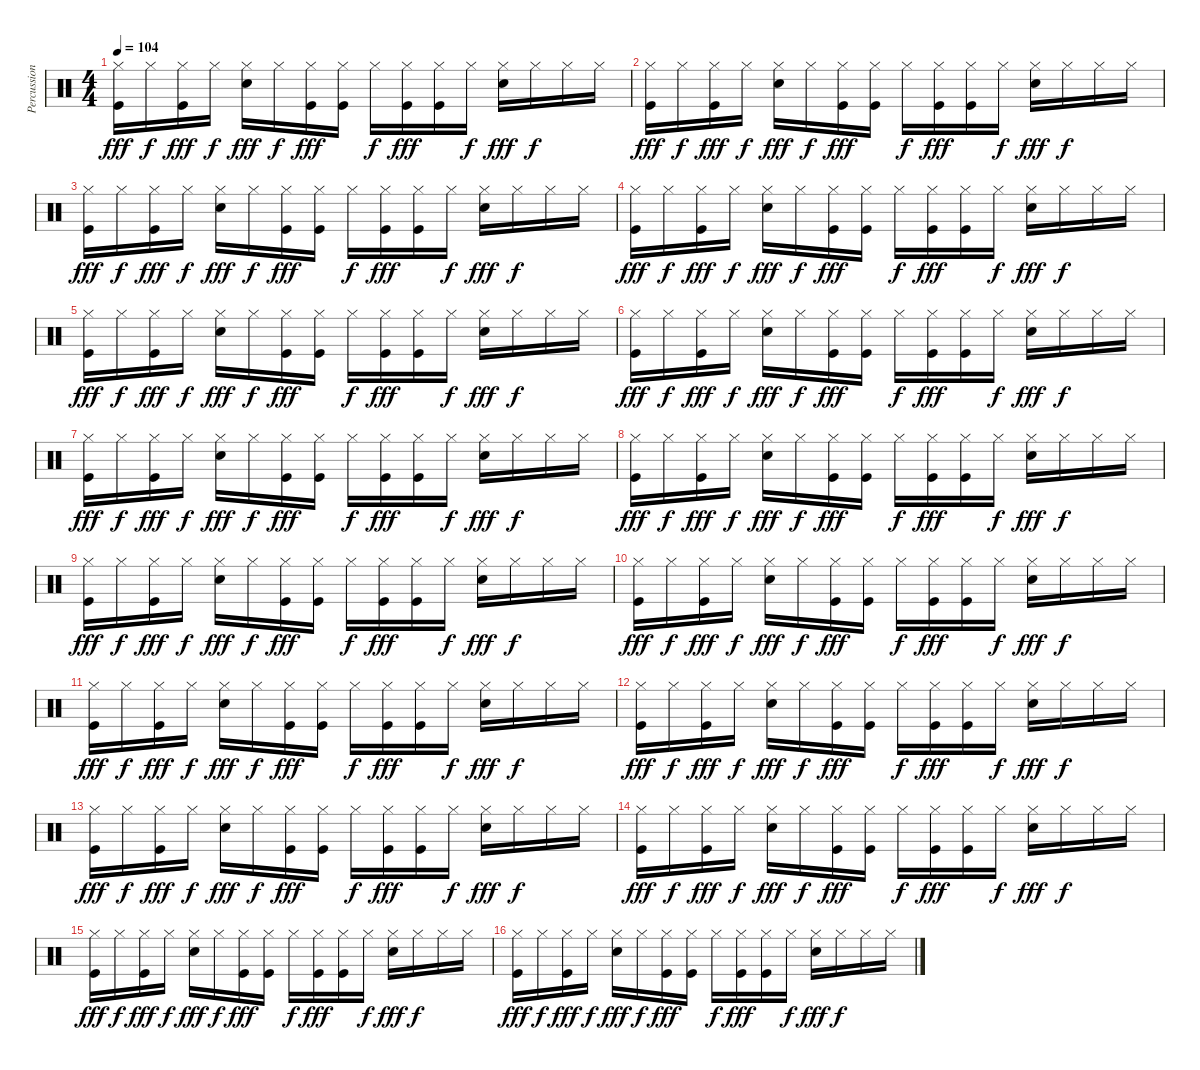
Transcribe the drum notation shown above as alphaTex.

\track ("Percussion" "Percussion") {instrument percussion}
\staff {score}
\articulation defaults
\ts (4 4)
\tempo 104
\clef neutral
\ks c
("Kick (hit)" "Hi-Hat (closed)").16{dy fff} "Hi-Hat (closed)".16{dy f} ("Kick (hit)" "Hi-Hat (closed)").16{dy fff} "Hi-Hat (closed)".16{dy f} ("Snare (hit) 2" "Hi-Hat (closed)").16{dy fff} "Hi-Hat (closed)".16{dy f} ("Kick (hit)" "Hi-Hat (closed)").16{dy fff} ("Kick (hit)" "Hi-Hat (closed)").16 "Hi-Hat (closed)".16{dy f} ("Kick (hit)" "Hi-Hat (closed)").16{dy fff} ("Kick (hit)" "Hi-Hat (closed)").16 "Hi-Hat (closed)".16{dy f} ("Snare (hit) 2" "Hi-Hat (closed)").16{dy fff} "Hi-Hat (closed)".16{dy f} "Hi-Hat (closed)".16 "Hi-Hat (closed)".16 |
("Kick (hit)" "Hi-Hat (closed)").16{dy fff} "Hi-Hat (closed)".16{dy f} ("Kick (hit)" "Hi-Hat (closed)").16{dy fff} "Hi-Hat (closed)".16{dy f} ("Snare (hit) 2" "Hi-Hat (closed)").16{dy fff} "Hi-Hat (closed)".16{dy f} ("Kick (hit)" "Hi-Hat (closed)").16{dy fff} ("Kick (hit)" "Hi-Hat (closed)").16 "Hi-Hat (closed)".16{dy f} ("Kick (hit)" "Hi-Hat (closed)").16{dy fff} ("Kick (hit)" "Hi-Hat (closed)").16 "Hi-Hat (closed)".16{dy f} ("Snare (hit) 2" "Hi-Hat (closed)").16{dy fff} "Hi-Hat (closed)".16{dy f} "Hi-Hat (closed)".16 "Hi-Hat (closed)".16 |
("Kick (hit)" "Hi-Hat (closed)").16{dy fff} "Hi-Hat (closed)".16{dy f} ("Kick (hit)" "Hi-Hat (closed)").16{dy fff} "Hi-Hat (closed)".16{dy f} ("Snare (hit) 2" "Hi-Hat (closed)").16{dy fff} "Hi-Hat (closed)".16{dy f} ("Kick (hit)" "Hi-Hat (closed)").16{dy fff} ("Kick (hit)" "Hi-Hat (closed)").16 "Hi-Hat (closed)".16{dy f} ("Kick (hit)" "Hi-Hat (closed)").16{dy fff} ("Kick (hit)" "Hi-Hat (closed)").16 "Hi-Hat (closed)".16{dy f} ("Snare (hit) 2" "Hi-Hat (closed)").16{dy fff} "Hi-Hat (closed)".16{dy f} "Hi-Hat (closed)".16 "Hi-Hat (closed)".16 |
("Kick (hit)" "Hi-Hat (closed)").16{dy fff} "Hi-Hat (closed)".16{dy f} ("Kick (hit)" "Hi-Hat (closed)").16{dy fff} "Hi-Hat (closed)".16{dy f} ("Snare (hit) 2" "Hi-Hat (closed)").16{dy fff} "Hi-Hat (closed)".16{dy f} ("Kick (hit)" "Hi-Hat (closed)").16{dy fff} ("Kick (hit)" "Hi-Hat (closed)").16 "Hi-Hat (closed)".16{dy f} ("Kick (hit)" "Hi-Hat (closed)").16{dy fff} ("Kick (hit)" "Hi-Hat (closed)").16 "Hi-Hat (closed)".16{dy f} ("Snare (hit) 2" "Hi-Hat (closed)").16{dy fff} "Hi-Hat (closed)".16{dy f} "Hi-Hat (closed)".16 "Hi-Hat (closed)".16 |
("Kick (hit)" "Hi-Hat (closed)").16{dy fff} "Hi-Hat (closed)".16{dy f} ("Kick (hit)" "Hi-Hat (closed)").16{dy fff} "Hi-Hat (closed)".16{dy f} ("Snare (hit) 2" "Hi-Hat (closed)").16{dy fff} "Hi-Hat (closed)".16{dy f} ("Kick (hit)" "Hi-Hat (closed)").16{dy fff} ("Kick (hit)" "Hi-Hat (closed)").16 "Hi-Hat (closed)".16{dy f} ("Kick (hit)" "Hi-Hat (closed)").16{dy fff} ("Kick (hit)" "Hi-Hat (closed)").16 "Hi-Hat (closed)".16{dy f} ("Snare (hit) 2" "Hi-Hat (closed)").16{dy fff} "Hi-Hat (closed)".16{dy f} "Hi-Hat (closed)".16 "Hi-Hat (closed)".16 |
("Kick (hit)" "Hi-Hat (closed)").16{dy fff} "Hi-Hat (closed)".16{dy f} ("Kick (hit)" "Hi-Hat (closed)").16{dy fff} "Hi-Hat (closed)".16{dy f} ("Snare (hit) 2" "Hi-Hat (closed)").16{dy fff} "Hi-Hat (closed)".16{dy f} ("Kick (hit)" "Hi-Hat (closed)").16{dy fff} ("Kick (hit)" "Hi-Hat (closed)").16 "Hi-Hat (closed)".16{dy f} ("Kick (hit)" "Hi-Hat (closed)").16{dy fff} ("Kick (hit)" "Hi-Hat (closed)").16 "Hi-Hat (closed)".16{dy f} ("Snare (hit) 2" "Hi-Hat (closed)").16{dy fff} "Hi-Hat (closed)".16{dy f} "Hi-Hat (closed)".16 "Hi-Hat (closed)".16 |
("Kick (hit)" "Hi-Hat (closed)").16{dy fff} "Hi-Hat (closed)".16{dy f} ("Kick (hit)" "Hi-Hat (closed)").16{dy fff} "Hi-Hat (closed)".16{dy f} ("Snare (hit) 2" "Hi-Hat (closed)").16{dy fff} "Hi-Hat (closed)".16{dy f} ("Kick (hit)" "Hi-Hat (closed)").16{dy fff} ("Kick (hit)" "Hi-Hat (closed)").16 "Hi-Hat (closed)".16{dy f} ("Kick (hit)" "Hi-Hat (closed)").16{dy fff} ("Kick (hit)" "Hi-Hat (closed)").16 "Hi-Hat (closed)".16{dy f} ("Snare (hit) 2" "Hi-Hat (closed)").16{dy fff} "Hi-Hat (closed)".16{dy f} "Hi-Hat (closed)".16 "Hi-Hat (closed)".16 |
("Kick (hit)" "Hi-Hat (closed)").16{dy fff} "Hi-Hat (closed)".16{dy f} ("Kick (hit)" "Hi-Hat (closed)").16{dy fff} "Hi-Hat (closed)".16{dy f} ("Snare (hit) 2" "Hi-Hat (closed)").16{dy fff} "Hi-Hat (closed)".16{dy f} ("Kick (hit)" "Hi-Hat (closed)").16{dy fff} ("Kick (hit)" "Hi-Hat (closed)").16 "Hi-Hat (closed)".16{dy f} ("Kick (hit)" "Hi-Hat (closed)").16{dy fff} ("Kick (hit)" "Hi-Hat (closed)").16 "Hi-Hat (closed)".16{dy f} ("Snare (hit) 2" "Hi-Hat (closed)").16{dy fff} "Hi-Hat (closed)".16{dy f} "Hi-Hat (closed)".16 "Hi-Hat (closed)".16 |
("Kick (hit)" "Hi-Hat (closed)").16{dy fff} "Hi-Hat (closed)".16{dy f} ("Kick (hit)" "Hi-Hat (closed)").16{dy fff} "Hi-Hat (closed)".16{dy f} ("Snare (hit) 2" "Hi-Hat (closed)").16{dy fff} "Hi-Hat (closed)".16{dy f} ("Kick (hit)" "Hi-Hat (closed)").16{dy fff} ("Kick (hit)" "Hi-Hat (closed)").16 "Hi-Hat (closed)".16{dy f} ("Kick (hit)" "Hi-Hat (closed)").16{dy fff} ("Kick (hit)" "Hi-Hat (closed)").16 "Hi-Hat (closed)".16{dy f} ("Snare (hit) 2" "Hi-Hat (closed)").16{dy fff} "Hi-Hat (closed)".16{dy f} "Hi-Hat (closed)".16 "Hi-Hat (closed)".16 |
("Kick (hit)" "Hi-Hat (closed)").16{dy fff} "Hi-Hat (closed)".16{dy f} ("Kick (hit)" "Hi-Hat (closed)").16{dy fff} "Hi-Hat (closed)".16{dy f} ("Snare (hit) 2" "Hi-Hat (closed)").16{dy fff} "Hi-Hat (closed)".16{dy f} ("Kick (hit)" "Hi-Hat (closed)").16{dy fff} ("Kick (hit)" "Hi-Hat (closed)").16 "Hi-Hat (closed)".16{dy f} ("Kick (hit)" "Hi-Hat (closed)").16{dy fff} ("Kick (hit)" "Hi-Hat (closed)").16 "Hi-Hat (closed)".16{dy f} ("Snare (hit) 2" "Hi-Hat (closed)").16{dy fff} "Hi-Hat (closed)".16{dy f} "Hi-Hat (closed)".16 "Hi-Hat (closed)".16 |
("Kick (hit)" "Hi-Hat (closed)").16{dy fff} "Hi-Hat (closed)".16{dy f} ("Kick (hit)" "Hi-Hat (closed)").16{dy fff} "Hi-Hat (closed)".16{dy f} ("Snare (hit) 2" "Hi-Hat (closed)").16{dy fff} "Hi-Hat (closed)".16{dy f} ("Kick (hit)" "Hi-Hat (closed)").16{dy fff} ("Kick (hit)" "Hi-Hat (closed)").16 "Hi-Hat (closed)".16{dy f} ("Kick (hit)" "Hi-Hat (closed)").16{dy fff} ("Kick (hit)" "Hi-Hat (closed)").16 "Hi-Hat (closed)".16{dy f} ("Snare (hit) 2" "Hi-Hat (closed)").16{dy fff} "Hi-Hat (closed)".16{dy f} "Hi-Hat (closed)".16 "Hi-Hat (closed)".16 |
("Kick (hit)" "Hi-Hat (closed)").16{dy fff} "Hi-Hat (closed)".16{dy f} ("Kick (hit)" "Hi-Hat (closed)").16{dy fff} "Hi-Hat (closed)".16{dy f} ("Snare (hit) 2" "Hi-Hat (closed)").16{dy fff} "Hi-Hat (closed)".16{dy f} ("Kick (hit)" "Hi-Hat (closed)").16{dy fff} ("Kick (hit)" "Hi-Hat (closed)").16 "Hi-Hat (closed)".16{dy f} ("Kick (hit)" "Hi-Hat (closed)").16{dy fff} ("Kick (hit)" "Hi-Hat (closed)").16 "Hi-Hat (closed)".16{dy f} ("Snare (hit) 2" "Hi-Hat (closed)").16{dy fff} "Hi-Hat (closed)".16{dy f} "Hi-Hat (closed)".16 "Hi-Hat (closed)".16 |
("Kick (hit)" "Hi-Hat (closed)").16{dy fff} "Hi-Hat (closed)".16{dy f} ("Kick (hit)" "Hi-Hat (closed)").16{dy fff} "Hi-Hat (closed)".16{dy f} ("Snare (hit) 2" "Hi-Hat (closed)").16{dy fff} "Hi-Hat (closed)".16{dy f} ("Kick (hit)" "Hi-Hat (closed)").16{dy fff} ("Kick (hit)" "Hi-Hat (closed)").16 "Hi-Hat (closed)".16{dy f} ("Kick (hit)" "Hi-Hat (closed)").16{dy fff} ("Kick (hit)" "Hi-Hat (closed)").16 "Hi-Hat (closed)".16{dy f} ("Snare (hit) 2" "Hi-Hat (closed)").16{dy fff} "Hi-Hat (closed)".16{dy f} "Hi-Hat (closed)".16 "Hi-Hat (closed)".16 |
("Kick (hit)" "Hi-Hat (closed)").16{dy fff} "Hi-Hat (closed)".16{dy f} ("Kick (hit)" "Hi-Hat (closed)").16{dy fff} "Hi-Hat (closed)".16{dy f} ("Snare (hit) 2" "Hi-Hat (closed)").16{dy fff} "Hi-Hat (closed)".16{dy f} ("Kick (hit)" "Hi-Hat (closed)").16{dy fff} ("Kick (hit)" "Hi-Hat (closed)").16 "Hi-Hat (closed)".16{dy f} ("Kick (hit)" "Hi-Hat (closed)").16{dy fff} ("Kick (hit)" "Hi-Hat (closed)").16 "Hi-Hat (closed)".16{dy f} ("Snare (hit) 2" "Hi-Hat (closed)").16{dy fff} "Hi-Hat (closed)".16{dy f} "Hi-Hat (closed)".16 "Hi-Hat (closed)".16 |
("Kick (hit)" "Hi-Hat (closed)").16{dy fff} "Hi-Hat (closed)".16{dy f} ("Kick (hit)" "Hi-Hat (closed)").16{dy fff} "Hi-Hat (closed)".16{dy f} ("Snare (hit) 2" "Hi-Hat (closed)").16{dy fff} "Hi-Hat (closed)".16{dy f} ("Kick (hit)" "Hi-Hat (closed)").16{dy fff} ("Kick (hit)" "Hi-Hat (closed)").16 "Hi-Hat (closed)".16{dy f} ("Kick (hit)" "Hi-Hat (closed)").16{dy fff} ("Kick (hit)" "Hi-Hat (closed)").16 "Hi-Hat (closed)".16{dy f} ("Snare (hit) 2" "Hi-Hat (closed)").16{dy fff} "Hi-Hat (closed)".16{dy f} "Hi-Hat (closed)".16 "Hi-Hat (closed)".16 |
("Kick (hit)" "Hi-Hat (closed)").16{dy fff} "Hi-Hat (closed)".16{dy f} ("Kick (hit)" "Hi-Hat (closed)").16{dy fff} "Hi-Hat (closed)".16{dy f} ("Snare (hit) 2" "Hi-Hat (closed)").16{dy fff} "Hi-Hat (closed)".16{dy f} ("Kick (hit)" "Hi-Hat (closed)").16{dy fff} ("Kick (hit)" "Hi-Hat (closed)").16 "Hi-Hat (closed)".16{dy f} ("Kick (hit)" "Hi-Hat (closed)").16{dy fff} ("Kick (hit)" "Hi-Hat (closed)").16 "Hi-Hat (closed)".16{dy f} ("Snare (hit) 2" "Hi-Hat (closed)").16{dy fff} "Hi-Hat (closed)".16{dy f} "Hi-Hat (closed)".16 "Hi-Hat (closed)".16
